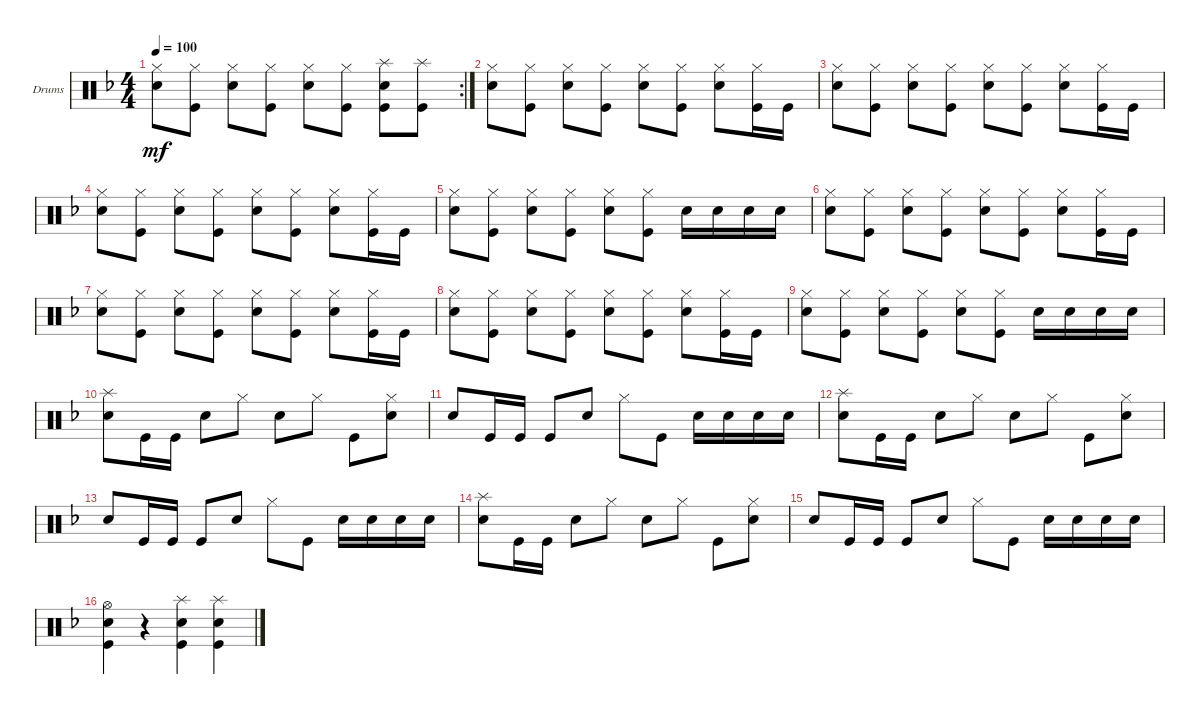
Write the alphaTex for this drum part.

\bracketExtendMode groupsimilarinstruments
\firstSystemTrackNameOrientation horizontal
\otherSystemsTrackNameOrientation horizontal
\track ("БАРАБАНЫ" "Drums") {solo instrument percussion}
\staff {score}
\articulation defaults
\rc 2
\ts (4 4)
\tempo 100
\clef neutral
\ks dminor
("Snare (hit) 2" "Hi-Hat (closed)").8{dy mf} ("Hi-Hat (closed)" "Kick (hit)").8 ("Snare (hit) 2" "Hi-Hat (closed)").8 ("Hi-Hat (closed)" "Kick (hit)").8 ("Snare (hit) 2" "Hi-Hat (closed)").8 ("Hi-Hat (closed)" "Kick (hit)").8 ("Kick (hit)" "Splash (hit)" "Snare (hit) 2").8 ("Kick (hit)" "Splash (hit)").8 |
("Snare (hit) 2" "Hi-Hat (closed)").8 ("Hi-Hat (closed)" "Kick (hit)").8 ("Snare (hit) 2" "Hi-Hat (closed)").8 ("Hi-Hat (closed)" "Kick (hit)").8 ("Snare (hit) 2" "Hi-Hat (closed)").8 ("Hi-Hat (closed)" "Kick (hit)").8 ("Snare (hit) 2" "Hi-Hat (closed)").8 ("Hi-Hat (closed)" "Kick (hit)").16 "Kick (hit)".16 |
("Snare (hit) 2" "Hi-Hat (closed)").8 ("Hi-Hat (closed)" "Kick (hit)").8 ("Snare (hit) 2" "Hi-Hat (closed)").8 ("Hi-Hat (closed)" "Kick (hit)").8 ("Snare (hit) 2" "Hi-Hat (closed)").8 ("Hi-Hat (closed)" "Kick (hit)").8 ("Snare (hit) 2" "Hi-Hat (closed)").8 ("Hi-Hat (closed)" "Kick (hit)").16 "Kick (hit)".16 |
("Snare (hit) 2" "Hi-Hat (closed)").8 ("Hi-Hat (closed)" "Kick (hit)").8 ("Snare (hit) 2" "Hi-Hat (closed)").8 ("Hi-Hat (closed)" "Kick (hit)").8 ("Snare (hit) 2" "Hi-Hat (closed)").8 ("Hi-Hat (closed)" "Kick (hit)").8 ("Snare (hit) 2" "Hi-Hat (closed)").8 ("Hi-Hat (closed)" "Kick (hit)").16 "Kick (hit)".16 |
("Snare (hit) 2" "Hi-Hat (closed)").8 ("Hi-Hat (closed)" "Kick (hit)").8 ("Snare (hit) 2" "Hi-Hat (closed)").8 ("Hi-Hat (closed)" "Kick (hit)").8 ("Snare (hit) 2" "Hi-Hat (closed)").8 ("Kick (hit)" "Hi-Hat (closed)").8 "Snare (hit) 2".16 "Snare (hit) 2".16 "Snare (hit) 2".16 "Snare (hit) 2".16 |
("Snare (hit) 2" "Hi-Hat (closed)").8 ("Hi-Hat (closed)" "Kick (hit)").8 ("Snare (hit) 2" "Hi-Hat (closed)").8 ("Hi-Hat (closed)" "Kick (hit)").8 ("Snare (hit) 2" "Hi-Hat (closed)").8 ("Hi-Hat (closed)" "Kick (hit)").8 ("Snare (hit) 2" "Hi-Hat (closed)").8 ("Hi-Hat (closed)" "Kick (hit)").16 "Kick (hit)".16 |
("Snare (hit) 2" "Hi-Hat (closed)").8 ("Hi-Hat (closed)" "Kick (hit)").8 ("Snare (hit) 2" "Hi-Hat (closed)").8 ("Hi-Hat (closed)" "Kick (hit)").8 ("Snare (hit) 2" "Hi-Hat (closed)").8 ("Hi-Hat (closed)" "Kick (hit)").8 ("Snare (hit) 2" "Hi-Hat (closed)").8 ("Hi-Hat (closed)" "Kick (hit)").16 "Kick (hit)".16 |
("Snare (hit) 2" "Hi-Hat (closed)").8 ("Hi-Hat (closed)" "Kick (hit)").8 ("Snare (hit) 2" "Hi-Hat (closed)").8 ("Hi-Hat (closed)" "Kick (hit)").8 ("Snare (hit) 2" "Hi-Hat (closed)").8 ("Hi-Hat (closed)" "Kick (hit)").8 ("Snare (hit) 2" "Hi-Hat (closed)").8 ("Hi-Hat (closed)" "Kick (hit)").16 "Kick (hit)".16 |
("Snare (hit) 2" "Hi-Hat (closed)").8 ("Hi-Hat (closed)" "Kick (hit)").8 ("Snare (hit) 2" "Hi-Hat (closed)").8 ("Hi-Hat (closed)" "Kick (hit)").8 ("Snare (hit) 2" "Hi-Hat (closed)").8 ("Kick (hit)" "Hi-Hat (closed)").8 "Snare (hit) 2".16 "Snare (hit) 2".16 "Snare (hit) 2".16 "Snare (hit) 2".16 |
("Splash (hit)" "Snare (hit) 2").8 "Kick (hit)".16 "Kick (hit)".16 "Snare (hit) 2".8 "Hi-Hat (closed)".8 "Snare (hit) 2".8 "Hi-Hat (closed)".8 "Kick (hit)".8 ("Hi-Hat (closed)" "Snare (hit) 2").8 |
"Snare (hit) 2".8 "Kick (hit)".16 "Kick (hit)".16 "Kick (hit)".8 "Snare (hit) 2".8 "Hi-Hat (closed)".8 "Kick (hit)".8 "Snare (hit) 2".16 "Snare (hit) 2".16 "Snare (hit) 2".16 "Snare (hit) 2".16 |
("Splash (hit)" "Snare (hit) 2").8 "Kick (hit)".16 "Kick (hit)".16 "Snare (hit) 2".8 "Hi-Hat (closed)".8 "Snare (hit) 2".8 "Hi-Hat (closed)".8 "Kick (hit)".8 ("Hi-Hat (closed)" "Snare (hit) 2").8 |
"Snare (hit) 2".8 "Kick (hit)".16 "Kick (hit)".16 "Kick (hit)".8 "Snare (hit) 2".8 "Hi-Hat (closed)".8 "Kick (hit)".8 "Snare (hit) 2".16 "Snare (hit) 2".16 "Snare (hit) 2".16 "Snare (hit) 2".16 |
("Splash (hit)" "Snare (hit) 2").8 "Kick (hit)".16 "Kick (hit)".16 "Snare (hit) 2".8 "Hi-Hat (closed)".8 "Snare (hit) 2".8 "Hi-Hat (closed)".8 "Kick (hit)".8 ("Hi-Hat (closed)" "Snare (hit) 2").8 |
"Snare (hit) 2".8 "Kick (hit)".16 "Kick (hit)".16 "Kick (hit)".8 "Snare (hit) 2".8 "Hi-Hat (closed)".8 "Kick (hit)".8 "Snare (hit) 2".16 "Snare (hit) 2".16 "Snare (hit) 2".16 "Snare (hit) 2".16 |
("Snare (hit) 2" "Kick (hit)" "Hi-Hat (open)").4 r.4 ("Kick (hit)" "Snare (hit) 2" "Splash (hit)").4 ("Kick (hit)" "Snare (hit) 2" "Splash (hit)").4
